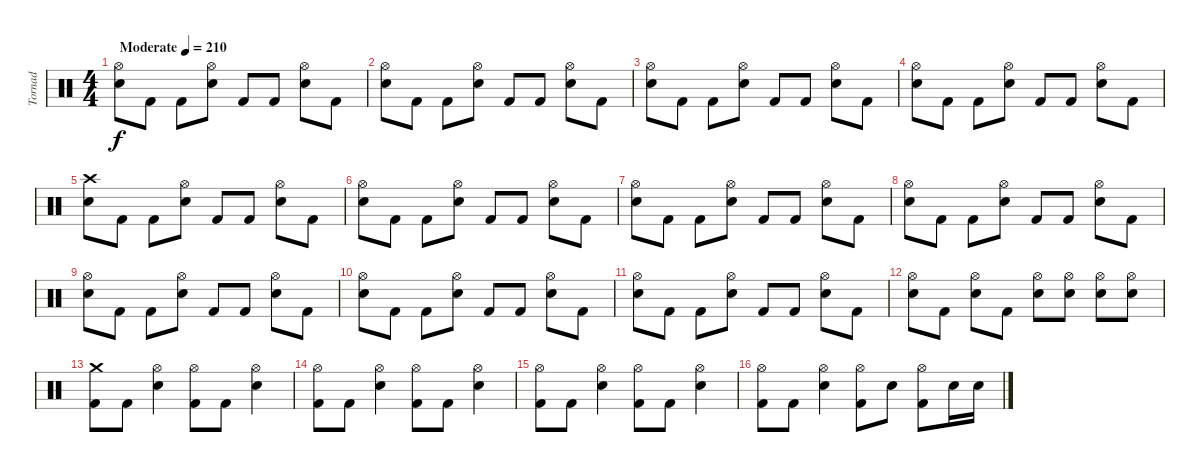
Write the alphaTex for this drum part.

\track ("Tornad" "Tornad") {instrument percussion}
\staff {score}
\articulation defaults
\ts (4 4)
\tempo (210 "Moderate")
\clef neutral
\ks c
("Hi-Hat (open)" "Electric Snare (hit)").8{dy f} "Kick (hit) 2".8 "Kick (hit) 2".8 ("Hi-Hat (open)" "Electric Snare (hit)").8 "Kick (hit) 2".8 "Kick (hit) 2".8 ("Hi-Hat (open)" "Electric Snare (hit)").8 "Kick (hit) 2".8 |
("Hi-Hat (open)" "Electric Snare (hit)").8 "Kick (hit) 2".8 "Kick (hit) 2".8 ("Hi-Hat (open)" "Electric Snare (hit)").8 "Kick (hit) 2".8 "Kick (hit) 2".8 ("Hi-Hat (open)" "Electric Snare (hit)").8 "Kick (hit) 2".8 |
("Hi-Hat (open)" "Electric Snare (hit)").8 "Kick (hit) 2".8 "Kick (hit) 2".8 ("Hi-Hat (open)" "Electric Snare (hit)").8 "Kick (hit) 2".8 "Kick (hit) 2".8 ("Hi-Hat (open)" "Electric Snare (hit)").8 "Kick (hit) 2".8 |
("Hi-Hat (open)" "Electric Snare (hit)").8 "Kick (hit) 2".8 "Kick (hit) 2".8 ("Hi-Hat (open)" "Electric Snare (hit)").8 "Kick (hit) 2".8 "Kick (hit) 2".8 ("Hi-Hat (open)" "Electric Snare (hit)").8 "Kick (hit) 2".8 |
("Crash high (hit)" "Electric Snare (hit)").8 "Kick (hit) 2".8 "Kick (hit) 2".8 ("Hi-Hat (open)" "Electric Snare (hit)").8 "Kick (hit) 2".8 "Kick (hit) 2".8 ("Hi-Hat (open)" "Electric Snare (hit)").8 "Kick (hit) 2".8 |
("Hi-Hat (open)" "Electric Snare (hit)").8 "Kick (hit) 2".8 "Kick (hit) 2".8 ("Hi-Hat (open)" "Electric Snare (hit)").8 "Kick (hit) 2".8 "Kick (hit) 2".8 ("Hi-Hat (open)" "Electric Snare (hit)").8 "Kick (hit) 2".8 |
("Hi-Hat (open)" "Electric Snare (hit)").8 "Kick (hit) 2".8 "Kick (hit) 2".8 ("Hi-Hat (open)" "Electric Snare (hit)").8 "Kick (hit) 2".8 "Kick (hit) 2".8 ("Hi-Hat (open)" "Electric Snare (hit)").8 "Kick (hit) 2".8 |
("Hi-Hat (open)" "Electric Snare (hit)").8 "Kick (hit) 2".8 "Kick (hit) 2".8 ("Hi-Hat (open)" "Electric Snare (hit)").8 "Kick (hit) 2".8 "Kick (hit) 2".8 ("Hi-Hat (open)" "Electric Snare (hit)").8 "Kick (hit) 2".8 |
("Hi-Hat (open)" "Electric Snare (hit)").8 "Kick (hit) 2".8 "Kick (hit) 2".8 ("Hi-Hat (open)" "Electric Snare (hit)").8 "Kick (hit) 2".8 "Kick (hit) 2".8 ("Hi-Hat (open)" "Electric Snare (hit)").8 "Kick (hit) 2".8 |
("Hi-Hat (open)" "Electric Snare (hit)").8 "Kick (hit) 2".8 "Kick (hit) 2".8 ("Hi-Hat (open)" "Electric Snare (hit)").8 "Kick (hit) 2".8 "Kick (hit) 2".8 ("Hi-Hat (open)" "Electric Snare (hit)").8 "Kick (hit) 2".8 |
("Hi-Hat (open)" "Electric Snare (hit)").8 "Kick (hit) 2".8 "Kick (hit) 2".8 ("Hi-Hat (open)" "Electric Snare (hit)").8 "Kick (hit) 2".8 "Kick (hit) 2".8 ("Hi-Hat (open)" "Electric Snare (hit)").8 "Kick (hit) 2".8 |
("Hi-Hat (open)" "Electric Snare (hit)").8 "Kick (hit) 2".8 ("Hi-Hat (open)" "Electric Snare (hit)").8 "Kick (hit) 2".8 ("Hi-Hat (open)" "Electric Snare (hit)").8 ("Hi-Hat (open)" "Electric Snare (hit)").8 ("Hi-Hat (open)" "Electric Snare (hit)").8 ("Hi-Hat (open)" "Electric Snare (hit)").8 |
("Crash medium (hit)" "Kick (hit) 2").8 "Kick (hit) 2".8 ("Hi-Hat (open)" "Electric Snare (hit)").4 ("Hi-Hat (open)" "Kick (hit) 2").8 "Kick (hit) 2".8 ("Hi-Hat (open)" "Electric Snare (hit)").4 |
("Hi-Hat (open)" "Kick (hit) 2").8 "Kick (hit) 2".8 ("Hi-Hat (open)" "Electric Snare (hit)").4 ("Hi-Hat (open)" "Kick (hit) 2").8 "Kick (hit) 2".8 ("Hi-Hat (open)" "Electric Snare (hit)").4 |
("Hi-Hat (open)" "Kick (hit) 2").8 "Kick (hit) 2".8 ("Hi-Hat (open)" "Electric Snare (hit)").4 ("Hi-Hat (open)" "Kick (hit) 2").8 "Kick (hit) 2".8 ("Hi-Hat (open)" "Electric Snare (hit)").4 |
("Hi-Hat (open)" "Kick (hit) 2").8 "Kick (hit) 2".8 ("Hi-Hat (open)" "Electric Snare (hit)").4 ("Hi-Hat (open)" "Kick (hit) 2").8 "Electric Snare (hit)".8 ("Hi-Hat (open)" "Kick (hit) 2").8 "Electric Snare (hit)".16 "Electric Snare (hit)".16
